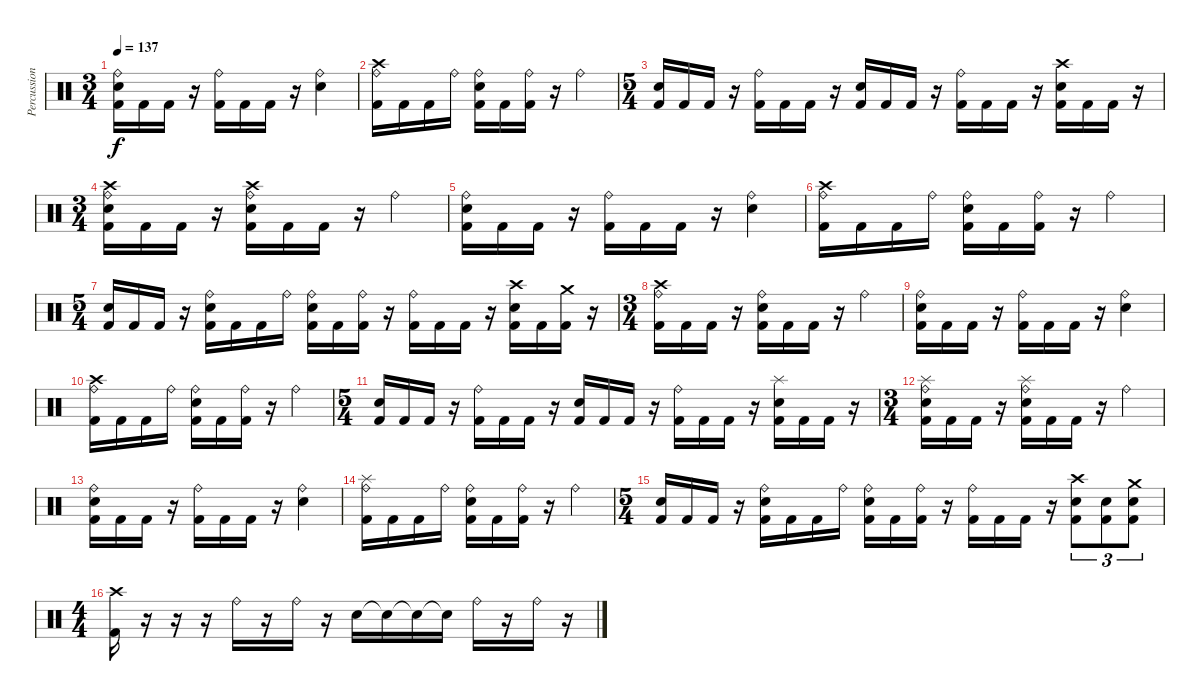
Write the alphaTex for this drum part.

\track ("Percussion" "Percussion") {instrument percussion}
\staff {score}
\articulation defaults
\ts (3 4)
\tempo 137
\clef neutral
\ks c
("Ride (bell)" "Electric Snare (hit)" "Kick (hit) 2").16{dy f} "Kick (hit) 2".16 "Kick (hit) 2".16 r.16 ("Ride (bell)" "Kick (hit) 2").16 "Kick (hit) 2".16 "Kick (hit) 2".16 r.16 ("Ride (bell)" "Electric Snare (hit)").4 |
("Crash high (hit)" "Ride (bell)" "Kick (hit) 2").16 "Kick (hit) 2".16 "Kick (hit) 2".16 "Ride (bell)".16 ("Ride (bell)" "Electric Snare (hit)" "Kick (hit) 2").16 "Kick (hit) 2".16 ("Ride (bell)" "Kick (hit) 2").16 r.16 "Ride (bell)".4 |
\ts (5 4)
("Electric Snare (hit)" "Kick (hit) 2").16 "Kick (hit) 2".16 "Kick (hit) 2".16 r.16 ("Ride (bell)" "Kick (hit) 2").16 "Kick (hit) 2".16 "Kick (hit) 2".16 r.16 ("Electric Snare (hit)" "Kick (hit) 2").16 "Kick (hit) 2".16 "Kick (hit) 2".16 r.16 ("Ride (bell)" "Kick (hit) 2").16 "Kick (hit) 2".16 "Kick (hit) 2".16 r.16 ("Crash high (hit)" "Electric Snare (hit)" "Kick (hit) 2").16 "Kick (hit) 2".16 "Kick (hit) 2".16 r.16 |
\ts (3 4)
("Crash high (hit)" "Ride (bell)" "Electric Snare (hit)" "Kick (hit) 2").16 "Kick (hit) 2".16 "Kick (hit) 2".16 r.16 ("Crash high (hit)" "Ride (bell)" "Electric Snare (hit)" "Kick (hit) 2").16 "Kick (hit) 2".16 "Kick (hit) 2".16 r.16 "Ride (bell)".4 |
("Ride (bell)" "Electric Snare (hit)" "Kick (hit) 2").16 "Kick (hit) 2".16 "Kick (hit) 2".16 r.16 ("Ride (bell)" "Kick (hit) 2").16 "Kick (hit) 2".16 "Kick (hit) 2".16 r.16 ("Ride (bell)" "Electric Snare (hit)").4 |
("Crash high (hit)" "Ride (bell)" "Kick (hit) 2").16 "Kick (hit) 2".16 "Kick (hit) 2".16 "Ride (bell)".16 ("Ride (bell)" "Electric Snare (hit)" "Kick (hit) 2").16 "Kick (hit) 2".16 ("Ride (bell)" "Kick (hit) 2").16 r.16 "Ride (bell)".4 |
\ts (5 4)
("Electric Snare (hit)" "Kick (hit) 2").16 "Kick (hit) 2".16 "Kick (hit) 2".16 r.16 ("Ride (bell)" "Electric Snare (hit)" "Kick (hit) 2").16 "Kick (hit) 2".16 "Kick (hit) 2".16 "Ride (bell)".16 ("Ride (bell)" "Electric Snare (hit)" "Kick (hit) 2").16 "Kick (hit) 2".16 ("Ride (bell)" "Kick (hit) 2").16 r.16 ("Ride (bell)" "Kick (hit) 2").16 "Kick (hit) 2".16 "Kick (hit) 2".16 r.16 ("Crash high (hit)" "Electric Snare (hit)" "Kick (hit) 2").16 "Kick (hit) 2".16 ("Crash medium (hit)" "Kick (hit) 2").16 r.16 |
\ts (3 4)
("Crash high (hit)" "Ride (bell)" "Kick (hit) 2").16 "Kick (hit) 2".16 "Kick (hit) 2".16 r.16 ("Ride (bell)" "Electric Snare (hit)" "Kick (hit) 2").16 "Kick (hit) 2".16 "Kick (hit) 2".16 r.16 "Ride (bell)".4 |
("Ride (bell)" "Electric Snare (hit)" "Kick (hit) 2").16 "Kick (hit) 2".16 "Kick (hit) 2".16 r.16 ("Ride (bell)" "Kick (hit) 2").16 "Kick (hit) 2".16 "Kick (hit) 2".16 r.16 ("Ride (bell)" "Electric Snare (hit)").4 |
("Crash high (hit)" "Ride (bell)" "Kick (hit) 2").16 "Kick (hit) 2".16 "Kick (hit) 2".16 "Ride (bell)".16 ("Ride (bell)" "Electric Snare (hit)" "Kick (hit) 2").16 "Kick (hit) 2".16 ("Ride (bell)" "Kick (hit) 2").16 r.16 "Ride (bell)".4 |
\ts (5 4)
("Electric Snare (hit)" "Kick (hit) 2").16 "Kick (hit) 2".16 "Kick (hit) 2".16 r.16 ("Ride (bell)" "Kick (hit) 2").16 "Kick (hit) 2".16 "Kick (hit) 2".16 r.16 ("Electric Snare (hit)" "Kick (hit) 2").16 "Kick (hit) 2".16 "Kick (hit) 2".16 r.16 ("Ride (bell)" "Kick (hit) 2").16 "Kick (hit) 2".16 "Kick (hit) 2".16 r.16 ("Splash (hit)" "Electric Snare (hit)" "Kick (hit) 2").16 "Kick (hit) 2".16 "Kick (hit) 2".16 r.16 |
\ts (3 4)
("Splash (hit)" "Ride (bell)" "Electric Snare (hit)" "Kick (hit) 2").16 "Kick (hit) 2".16 "Kick (hit) 2".16 r.16 ("Splash (hit)" "Ride (bell)" "Electric Snare (hit)" "Kick (hit) 2").16 "Kick (hit) 2".16 "Kick (hit) 2".16 r.16 "Ride (bell)".4 |
("Ride (bell)" "Electric Snare (hit)" "Kick (hit) 2").16 "Kick (hit) 2".16 "Kick (hit) 2".16 r.16 ("Ride (bell)" "Kick (hit) 2").16 "Kick (hit) 2".16 "Kick (hit) 2".16 r.16 ("Ride (bell)" "Electric Snare (hit)").4 |
("Splash (hit)" "Ride (bell)" "Kick (hit) 2").16 "Kick (hit) 2".16 "Kick (hit) 2".16 "Ride (bell)".16 ("Ride (bell)" "Electric Snare (hit)" "Kick (hit) 2").16 "Kick (hit) 2".16 ("Ride (bell)" "Kick (hit) 2").16 r.16 "Ride (bell)".4 |
\ts (5 4)
("Electric Snare (hit)" "Kick (hit) 2").16 "Kick (hit) 2".16 "Kick (hit) 2".16 r.16 ("Ride (bell)" "Electric Snare (hit)" "Kick (hit) 2").16 "Kick (hit) 2".16 "Kick (hit) 2".16 "Ride (bell)".16 ("Ride (bell)" "Electric Snare (hit)" "Kick (hit) 2").16 "Kick (hit) 2".16 ("Ride (bell)" "Kick (hit) 2").16 r.16 ("Ride (bell)" "Kick (hit) 2").16 "Kick (hit) 2".16 "Kick (hit) 2".16 r.16 ("Crash high (hit)" "Electric Snare (hit)" "Kick (hit) 2").8{tu (3 2)} ("Electric Snare (hit)" "Kick (hit) 2").8{tu (3 2)} ("Crash medium (hit)" "Electric Snare (hit)" "Kick (hit) 2").8{tu (3 2)} |
\ts (4 4)
("Crash high (hit)" "Kick (hit) 2").16 r.16 r.16 r.16 "Ride (bell)".16 r.16 "Ride (bell)".16 r.16 "Electric Snare (hit)".16 "Electric Snare (hit)"{t}.16 "Electric Snare (hit)"{t}.16 "Electric Snare (hit)"{t}.16 "Ride (bell)".16 r.16 "Ride (bell)".16 r.16
